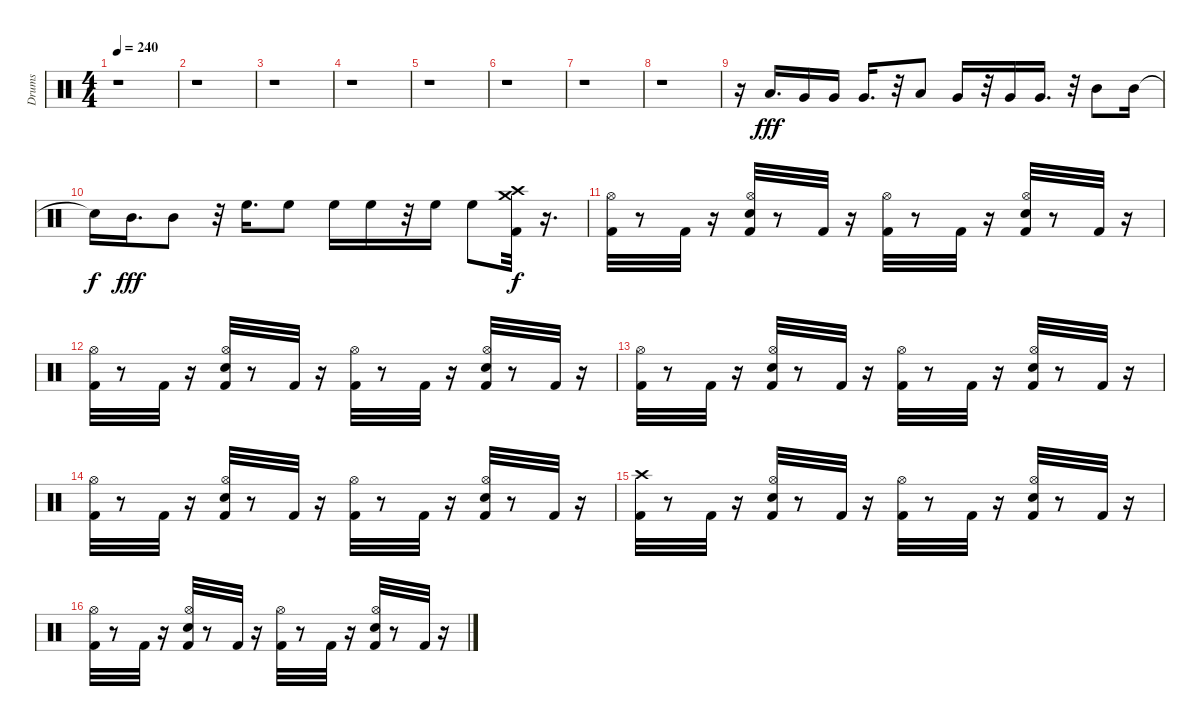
\track ("Drums" "Drums") {instrument percussion}
\staff {score}
\articulation defaults
\ts (4 4)
\tempo 240
\clef neutral
\ks c
r.1{dy f} |
r.1 |
r.1 |
r.1 |
r.1 |
r.1 |
r.1 |
r.1 |
r.16 "Low Floor Tom (hit)".16{d dy fff} "Very Low Tom (hit)".16 "Very Low Tom (hit)".16 "Very Low Tom (hit)".16{d} r.32 "Low Floor Tom (hit)".8 "Very Low Tom (hit)".16 r.32 "Very Low Tom (hit)".16 "Very Low Tom (hit)".16{d} r.32 "Mid Tom (hit)".8 "Mid Tom (hit)".16 |
"Snare (hit)"{t}.16{dy f} "Mid Tom (hit)".16{d dy fff} "Mid Tom (hit)".8 r.32 "High Floor Tom (hit)".16{d} "High Floor Tom (hit)".8 "High Floor Tom (hit)".16 "High Floor Tom (hit)".16 r.32 "High Floor Tom (hit)".16 "High Floor Tom (hit)".8 ("Crash medium (hit)" "Kick (hit) 2" "Crash high (hit)").32{dy f} r.16{d} |
("Hi-Hat (open)" "Kick (hit) 2").32 r.8 "Kick (hit) 2".32 r.16 ("Kick (hit) 2" "Electric Snare (hit)" "Hi-Hat (open)").32 r.8 "Kick (hit) 2".32 r.16 ("Kick (hit) 2" "Hi-Hat (open)").32 r.8 "Kick (hit) 2".32 r.16 ("Electric Snare (hit)" "Hi-Hat (open)" "Kick (hit) 2").32 r.8 "Kick (hit) 2".32 r.16 |
("Hi-Hat (open)" "Kick (hit) 2").32 r.8 "Kick (hit) 2".32 r.16 ("Electric Snare (hit)" "Hi-Hat (open)" "Kick (hit) 2").32 r.8 "Kick (hit) 2".32 r.16 ("Hi-Hat (open)" "Kick (hit) 2").32 r.8 "Kick (hit) 2".32 r.16 ("Electric Snare (hit)" "Kick (hit) 2" "Hi-Hat (open)").32 r.8 "Kick (hit) 2".32 r.16 |
("Kick (hit) 2" "Hi-Hat (open)").32 r.8 "Kick (hit) 2".32 r.16 ("Hi-Hat (open)" "Electric Snare (hit)" "Kick (hit) 2").32 r.8 "Kick (hit) 2".32 r.16 ("Kick (hit) 2" "Hi-Hat (open)").32 r.8 "Kick (hit) 2".32 r.16 ("Hi-Hat (open)" "Kick (hit) 2" "Electric Snare (hit)").32 r.8 "Kick (hit) 2".32 r.16 |
("Kick (hit) 2" "Hi-Hat (open)").32 r.8 "Kick (hit) 2".32 r.16 ("Kick (hit) 2" "Hi-Hat (open)" "Electric Snare (hit)").32 r.8 "Kick (hit) 2".32 r.16 ("Kick (hit) 2" "Hi-Hat (open)").32 r.8 "Kick (hit) 2".32 r.16 ("Electric Snare (hit)" "Kick (hit) 2" "Hi-Hat (open)").32 r.8 "Kick (hit) 2".32 r.16 |
("Crash high (hit)" "Kick (hit) 2").32 r.8 "Kick (hit) 2".32 r.16 ("Electric Snare (hit)" "Hi-Hat (open)" "Kick (hit) 2").32 r.8 "Kick (hit) 2".32 r.16 ("Kick (hit) 2" "Hi-Hat (open)").32 r.8 "Kick (hit) 2".32 r.16 ("Hi-Hat (open)" "Electric Snare (hit)" "Kick (hit) 2").32 r.8 "Kick (hit) 2".32 r.16 |
("Hi-Hat (open)" "Kick (hit) 2").32 r.8 "Kick (hit) 2".32 r.16 ("Hi-Hat (open)" "Electric Snare (hit)" "Kick (hit) 2").32 r.8 "Kick (hit) 2".32 r.16 ("Hi-Hat (open)" "Kick (hit) 2").32 r.8 "Kick (hit) 2".32 r.16 ("Kick (hit) 2" "Hi-Hat (open)" "Electric Snare (hit)").32 r.8 "Kick (hit) 2".32 r.16
